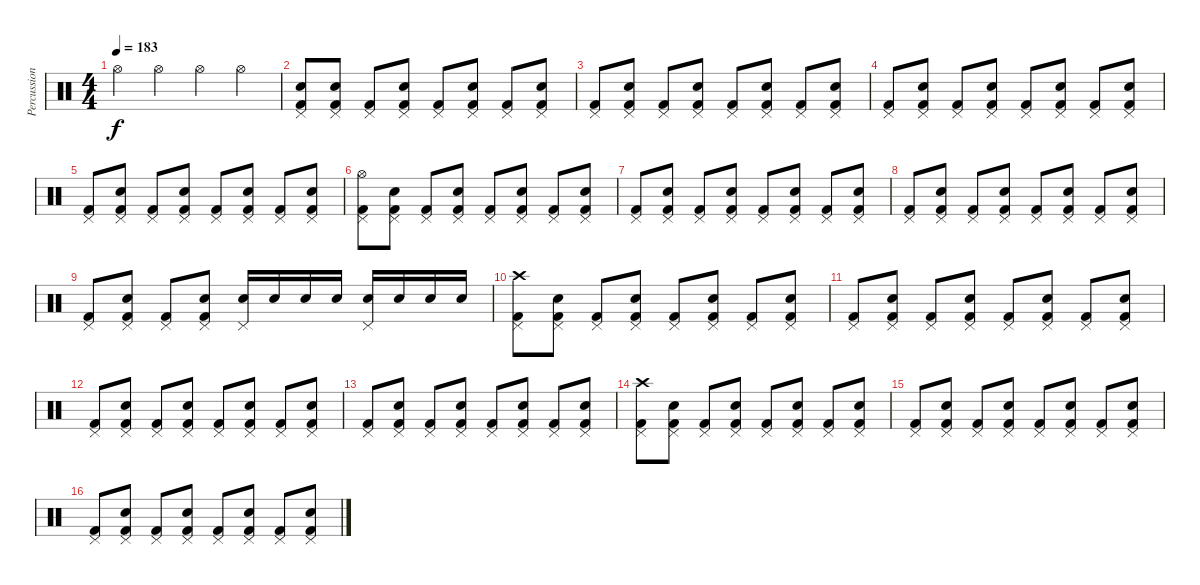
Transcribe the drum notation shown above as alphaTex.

\track ("Percussion" "Percussion") {instrument percussion}
\staff {score}
\articulation defaults
\ts (4 4)
\tempo 183
\clef neutral
\ks c "Hi-Hat (open)".4{dy f} "Hi-Hat (open)".4 "Hi-Hat (open)".4 "Hi-Hat (open)".4
|
("Kick (hit) 2" "Snare (hit) 2" "Pedal Hi-Hat (hit)").8 ("Kick (hit) 2" "Snare (hit) 2" "Pedal Hi-Hat (hit)").8 ("Kick (hit) 2" "Pedal Hi-Hat (hit)").8 ("Kick (hit) 2" "Snare (hit) 2" "Pedal Hi-Hat (hit)").8 ("Kick (hit) 2" "Pedal Hi-Hat (hit)").8 ("Kick (hit) 2" "Snare (hit) 2" "Pedal Hi-Hat (hit)").8 ("Kick (hit) 2" "Pedal Hi-Hat (hit)").8 ("Kick (hit) 2" "Snare (hit) 2" "Pedal Hi-Hat (hit)").8 |
("Kick (hit) 2" "Pedal Hi-Hat (hit)").8 ("Kick (hit) 2" "Snare (hit) 2" "Pedal Hi-Hat (hit)").8 ("Kick (hit) 2" "Pedal Hi-Hat (hit)").8 ("Kick (hit) 2" "Snare (hit) 2" "Pedal Hi-Hat (hit)").8 ("Kick (hit) 2" "Pedal Hi-Hat (hit)").8 ("Kick (hit) 2" "Snare (hit) 2" "Pedal Hi-Hat (hit)").8 ("Kick (hit) 2" "Pedal Hi-Hat (hit)").8 ("Kick (hit) 2" "Snare (hit) 2" "Pedal Hi-Hat (hit)").8 |
("Kick (hit) 2" "Pedal Hi-Hat (hit)").8 ("Kick (hit) 2" "Snare (hit) 2" "Pedal Hi-Hat (hit)").8 ("Kick (hit) 2" "Pedal Hi-Hat (hit)").8 ("Kick (hit) 2" "Snare (hit) 2" "Pedal Hi-Hat (hit)").8 ("Kick (hit) 2" "Pedal Hi-Hat (hit)").8 ("Kick (hit) 2" "Snare (hit) 2" "Pedal Hi-Hat (hit)").8 ("Kick (hit) 2" "Pedal Hi-Hat (hit)").8 ("Kick (hit) 2" "Snare (hit) 2" "Pedal Hi-Hat (hit)").8 |
("Kick (hit) 2" "Pedal Hi-Hat (hit)").8 ("Kick (hit) 2" "Snare (hit) 2" "Pedal Hi-Hat (hit)").8 ("Kick (hit) 2" "Pedal Hi-Hat (hit)").8 ("Kick (hit) 2" "Snare (hit) 2" "Pedal Hi-Hat (hit)").8 ("Kick (hit) 2" "Pedal Hi-Hat (hit)").8 ("Kick (hit) 2" "Snare (hit) 2" "Pedal Hi-Hat (hit)").8 ("Kick (hit) 2" "Pedal Hi-Hat (hit)").8 ("Kick (hit) 2" "Snare (hit) 2" "Pedal Hi-Hat (hit)").8 |
("Kick (hit) 2" "Pedal Hi-Hat (hit)" "Hi-Hat (open)").8 ("Kick (hit) 2" "Snare (hit) 2" "Pedal Hi-Hat (hit)").8 ("Kick (hit) 2" "Pedal Hi-Hat (hit)").8 ("Kick (hit) 2" "Snare (hit) 2" "Pedal Hi-Hat (hit)").8 ("Kick (hit) 2" "Pedal Hi-Hat (hit)").8 ("Kick (hit) 2" "Snare (hit) 2" "Pedal Hi-Hat (hit)").8 ("Kick (hit) 2" "Pedal Hi-Hat (hit)").8 ("Kick (hit) 2" "Snare (hit) 2" "Pedal Hi-Hat (hit)").8 |
("Kick (hit) 2" "Pedal Hi-Hat (hit)").8 ("Kick (hit) 2" "Snare (hit) 2" "Pedal Hi-Hat (hit)").8 ("Kick (hit) 2" "Pedal Hi-Hat (hit)").8 ("Kick (hit) 2" "Snare (hit) 2" "Pedal Hi-Hat (hit)").8 ("Kick (hit) 2" "Pedal Hi-Hat (hit)").8 ("Kick (hit) 2" "Snare (hit) 2" "Pedal Hi-Hat (hit)").8 ("Kick (hit) 2" "Pedal Hi-Hat (hit)").8 ("Kick (hit) 2" "Snare (hit) 2" "Pedal Hi-Hat (hit)").8 |
("Kick (hit) 2" "Pedal Hi-Hat (hit)").8 ("Kick (hit) 2" "Snare (hit) 2" "Pedal Hi-Hat (hit)").8 ("Kick (hit) 2" "Pedal Hi-Hat (hit)").8 ("Kick (hit) 2" "Snare (hit) 2" "Pedal Hi-Hat (hit)").8 ("Kick (hit) 2" "Pedal Hi-Hat (hit)").8 ("Kick (hit) 2" "Snare (hit) 2" "Pedal Hi-Hat (hit)").8 ("Kick (hit) 2" "Pedal Hi-Hat (hit)").8 ("Kick (hit) 2" "Snare (hit) 2" "Pedal Hi-Hat (hit)").8 |
("Kick (hit) 2" "Pedal Hi-Hat (hit)").8 ("Kick (hit) 2" "Snare (hit) 2" "Pedal Hi-Hat (hit)").8 ("Kick (hit) 2" "Pedal Hi-Hat (hit)").8 ("Kick (hit) 2" "Snare (hit) 2" "Pedal Hi-Hat (hit)").8 ("Pedal Hi-Hat (hit)" "Snare (hit) 2").16 "Snare (hit) 2".16 "Snare (hit) 2".16 "Snare (hit) 2".16 ("Pedal Hi-Hat (hit)" "Snare (hit) 2").16 "Snare (hit) 2".16 "Snare (hit) 2".16 "Snare (hit) 2".16 |
("Kick (hit) 2" "Pedal Hi-Hat (hit)" "Crash high (hit)").8 ("Kick (hit) 2" "Snare (hit) 2" "Pedal Hi-Hat (hit)").8 ("Kick (hit) 2" "Pedal Hi-Hat (hit)").8 ("Kick (hit) 2" "Snare (hit) 2" "Pedal Hi-Hat (hit)").8 ("Kick (hit) 2" "Pedal Hi-Hat (hit)").8 ("Kick (hit) 2" "Snare (hit) 2" "Pedal Hi-Hat (hit)").8 ("Kick (hit) 2" "Pedal Hi-Hat (hit)").8 ("Kick (hit) 2" "Snare (hit) 2" "Pedal Hi-Hat (hit)").8 |
("Kick (hit) 2" "Pedal Hi-Hat (hit)").8 ("Kick (hit) 2" "Snare (hit) 2" "Pedal Hi-Hat (hit)").8 ("Kick (hit) 2" "Pedal Hi-Hat (hit)").8 ("Kick (hit) 2" "Snare (hit) 2" "Pedal Hi-Hat (hit)").8 ("Kick (hit) 2" "Pedal Hi-Hat (hit)").8 ("Kick (hit) 2" "Snare (hit) 2" "Pedal Hi-Hat (hit)").8 ("Kick (hit) 2" "Pedal Hi-Hat (hit)").8 ("Kick (hit) 2" "Snare (hit) 2" "Pedal Hi-Hat (hit)").8 |
("Kick (hit) 2" "Pedal Hi-Hat (hit)").8 ("Kick (hit) 2" "Snare (hit) 2" "Pedal Hi-Hat (hit)").8 ("Kick (hit) 2" "Pedal Hi-Hat (hit)").8 ("Kick (hit) 2" "Snare (hit) 2" "Pedal Hi-Hat (hit)").8 ("Kick (hit) 2" "Pedal Hi-Hat (hit)").8 ("Kick (hit) 2" "Snare (hit) 2" "Pedal Hi-Hat (hit)").8 ("Kick (hit) 2" "Pedal Hi-Hat (hit)").8 ("Kick (hit) 2" "Snare (hit) 2" "Pedal Hi-Hat (hit)").8 |
("Kick (hit) 2" "Pedal Hi-Hat (hit)").8 ("Kick (hit) 2" "Snare (hit) 2" "Pedal Hi-Hat (hit)").8 ("Kick (hit) 2" "Pedal Hi-Hat (hit)").8 ("Kick (hit) 2" "Snare (hit) 2" "Pedal Hi-Hat (hit)").8 ("Kick (hit) 2" "Pedal Hi-Hat (hit)").8 ("Kick (hit) 2" "Snare (hit) 2" "Pedal Hi-Hat (hit)").8 ("Kick (hit) 2" "Pedal Hi-Hat (hit)").8 ("Kick (hit) 2" "Snare (hit) 2" "Pedal Hi-Hat (hit)").8 |
("Kick (hit) 2" "Pedal Hi-Hat (hit)" "Crash high (hit)").8 ("Kick (hit) 2" "Snare (hit) 2" "Pedal Hi-Hat (hit)").8 ("Kick (hit) 2" "Pedal Hi-Hat (hit)").8 ("Kick (hit) 2" "Snare (hit) 2" "Pedal Hi-Hat (hit)").8 ("Kick (hit) 2" "Pedal Hi-Hat (hit)").8 ("Kick (hit) 2" "Snare (hit) 2" "Pedal Hi-Hat (hit)").8 ("Kick (hit) 2" "Pedal Hi-Hat (hit)").8 ("Kick (hit) 2" "Snare (hit) 2" "Pedal Hi-Hat (hit)").8 |
("Kick (hit) 2" "Pedal Hi-Hat (hit)").8 ("Kick (hit) 2" "Snare (hit) 2" "Pedal Hi-Hat (hit)").8 ("Kick (hit) 2" "Pedal Hi-Hat (hit)").8 ("Kick (hit) 2" "Snare (hit) 2" "Pedal Hi-Hat (hit)").8 ("Kick (hit) 2" "Pedal Hi-Hat (hit)").8 ("Kick (hit) 2" "Snare (hit) 2" "Pedal Hi-Hat (hit)").8 ("Kick (hit) 2" "Pedal Hi-Hat (hit)").8 ("Kick (hit) 2" "Snare (hit) 2" "Pedal Hi-Hat (hit)").8 |
("Kick (hit) 2" "Pedal Hi-Hat (hit)").8 ("Kick (hit) 2" "Snare (hit) 2" "Pedal Hi-Hat (hit)").8 ("Kick (hit) 2" "Pedal Hi-Hat (hit)").8 ("Kick (hit) 2" "Snare (hit) 2" "Pedal Hi-Hat (hit)").8 ("Kick (hit) 2" "Pedal Hi-Hat (hit)").8 ("Kick (hit) 2" "Snare (hit) 2" "Pedal Hi-Hat (hit)").8 ("Kick (hit) 2" "Pedal Hi-Hat (hit)").8 ("Kick (hit) 2" "Snare (hit) 2" "Pedal Hi-Hat (hit)").8
